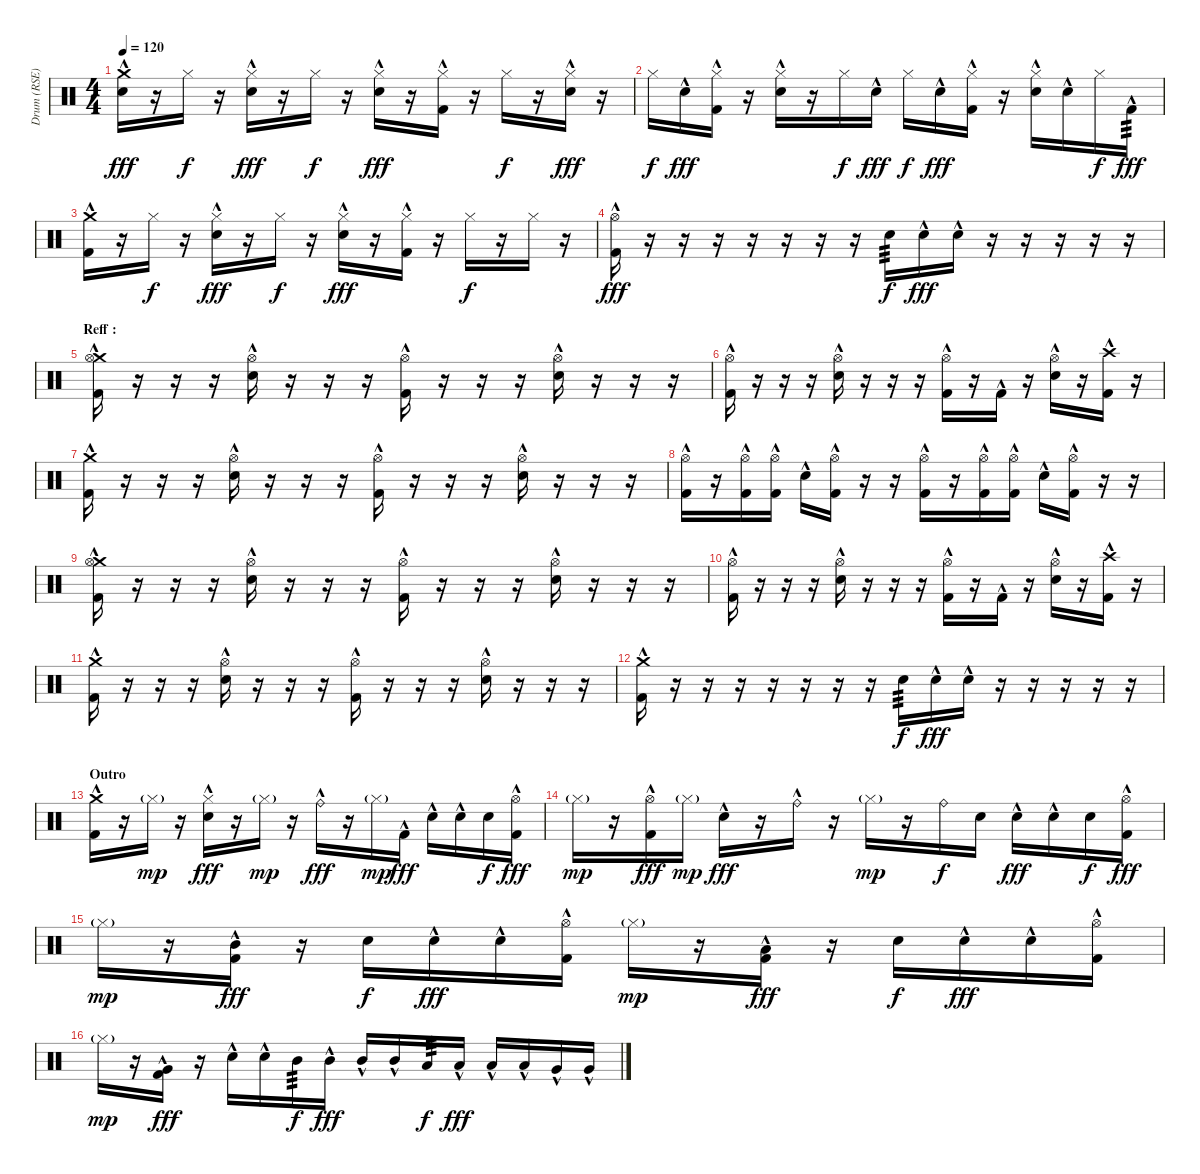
\track ("Drum (RSE)" "Drum (RSE)") {instrument percussion}
\staff {score}
\articulation defaults
\ts (4 4)
\tempo 120
\clef neutral
\ks c
("Crash medium (hit)" "Snare (hit) 2"{hac}).16{dy fff} r.16 "Hi-Hat (closed)".16{dy f} r.16 ("Hi-Hat (closed)" "Snare (hit) 2"{hac}).16{dy fff} r.16 "Hi-Hat (closed)".16{dy f} r.16 ("Hi-Hat (closed)" "Snare (hit) 2"{hac}).16{dy fff} r.16 ("Hi-Hat (closed)" "Kick (hit) 2"{hac}).16 r.16 "Hi-Hat (closed)".16{dy f} r.16 ("Hi-Hat (closed)" "Snare (hit) 2"{hac}).16{dy fff} r.16 |
"Hi-Hat (closed)".16{dy f} "Snare (hit) 2"{hac}.16{dy fff} ("Hi-Hat (closed)" "Kick (hit) 2"{hac}).16 r.16 ("Hi-Hat (closed)" "Snare (hit) 2"{hac}).16 r.16 "Hi-Hat (closed)".16{dy f} "Snare (hit) 2"{hac}.16{dy fff} "Hi-Hat (closed)".16{dy f} "Snare (hit) 2"{hac}.16{dy fff} ("Hi-Hat (closed)" "Kick (hit) 2"{hac}).16 r.16 ("Hi-Hat (closed)" "Snare (hit) 2"{hac}).16 "Snare (hit) 2"{hac}.16 "Hi-Hat (closed)".16{dy f} "Kick (hit) 2"{hac}.16{tp 3 dy fff} |
("Crash medium (hit)" "Kick (hit) 2"{hac}).16 r.16 "Hi-Hat (closed)".16{dy f} r.16 ("Hi-Hat (closed)" "Snare (hit) 2"{hac}).16{dy fff} r.16 "Hi-Hat (closed)".16{dy f} r.16 ("Hi-Hat (closed)" "Snare (hit) 2"{hac}).16{dy fff} r.16 ("Hi-Hat (closed)" "Kick (hit) 2"{hac}).16 r.16 "Hi-Hat (closed)".16{dy f} r.16 "Hi-Hat (closed)".16 r.16 |
("Hi-Hat (open)" "Kick (hit) 2"{hac}).16{dy fff} r.16 r.16 r.16 r.16 r.16 r.16 r.16 "Snare (hit) 2".16{tp 3 dy f} "Snare (hit) 2"{hac}.16{dy fff} "Snare (hit) 2"{hac}.16 r.16 r.16 r.16 r.16 r.16 |
\section ("" "Reff :")
("Crash medium (hit)" "Hi-Hat (open)" "Kick (hit) 2"{hac}).16 r.16 r.16 r.16 ("Hi-Hat (open)" "Snare (hit) 2"{hac}).16 r.16 r.16 r.16 ("Hi-Hat (open)" "Kick (hit) 2"{hac}).16 r.16 r.16 r.16 ("Hi-Hat (open)" "Snare (hit) 2"{hac}).16 r.16 r.16 r.16 |
("Hi-Hat (open)" "Kick (hit) 2"{hac}).16 r.16 r.16 r.16 ("Hi-Hat (open)" "Snare (hit) 2"{hac}).16 r.16 r.16 r.16 ("Hi-Hat (open)" "Kick (hit) 2"{hac}).16 r.16 "Kick (hit) 2"{hac}.16 r.16 ("Hi-Hat (open)" "Snare (hit) 2"{hac}).16 r.16 ("Crash high (hit)" "Kick (hit) 2"{hac}).16 r.16 |
("Crash medium (hit)" "Kick (hit) 2"{hac}).16 r.16 r.16 r.16 ("Hi-Hat (open)" "Snare (hit) 2"{hac}).16 r.16 r.16 r.16 ("Hi-Hat (open)" "Kick (hit) 2"{hac}).16 r.16 r.16 r.16 ("Hi-Hat (open)" "Snare (hit) 2"{hac}).16 r.16 r.16 r.16 |
("Hi-Hat (open)" "Kick (hit) 2"{hac}).16 r.16 ("Hi-Hat (open)" "Kick (hit) 2"{hac}).16 ("Hi-Hat (open)" "Kick (hit) 2"{hac}).16 "Snare (hit) 2"{hac}.16 ("Hi-Hat (open)" "Kick (hit) 2"{hac}).16 r.16 r.16 ("Hi-Hat (open)" "Kick (hit) 2"{hac}).16 r.16 ("Hi-Hat (open)" "Kick (hit) 2"{hac}).16 ("Hi-Hat (open)" "Kick (hit) 2"{hac}).16 "Snare (hit) 2"{hac}.16 ("Hi-Hat (open)" "Kick (hit) 2"{hac}).16 r.16 r.16 |
("Crash medium (hit)" "Hi-Hat (open)" "Kick (hit) 2"{hac}).16 r.16 r.16 r.16 ("Hi-Hat (open)" "Snare (hit) 2"{hac}).16 r.16 r.16 r.16 ("Hi-Hat (open)" "Kick (hit) 2"{hac}).16 r.16 r.16 r.16 ("Hi-Hat (open)" "Snare (hit) 2"{hac}).16 r.16 r.16 r.16 |
("Hi-Hat (open)" "Kick (hit) 2"{hac}).16 r.16 r.16 r.16 ("Hi-Hat (open)" "Snare (hit) 2"{hac}).16 r.16 r.16 r.16 ("Hi-Hat (open)" "Kick (hit) 2"{hac}).16 r.16 "Kick (hit) 2"{hac}.16 r.16 ("Hi-Hat (open)" "Snare (hit) 2"{hac}).16 r.16 ("Crash high (hit)" "Kick (hit) 2"{hac}).16 r.16 |
("Crash medium (hit)" "Kick (hit) 2"{hac}).16 r.16 r.16 r.16 ("Hi-Hat (open)" "Snare (hit) 2"{hac}).16 r.16 r.16 r.16 ("Hi-Hat (open)" "Kick (hit) 2"{hac}).16 r.16 r.16 r.16 ("Hi-Hat (open)" "Snare (hit) 2"{hac}).16 r.16 r.16 r.16 |
("Crash medium (hit)" "Kick (hit) 2"{hac}).16 r.16 r.16 r.16 r.16 r.16 r.16 r.16 "Snare (hit) 2".16{tp 3 dy f} "Snare (hit) 2"{hac}.16{dy fff} "Snare (hit) 2"{hac}.16 r.16 r.16 r.16 r.16 r.16 |
\section ("" "Outro")
("Crash medium (hit)" "Kick (hit) 2"{hac}).16 r.16 "Hi-Hat (closed)"{g}.16{dy mp} r.16 ("Hi-Hat (closed)" "Snare (hit) 2"{hac}).16{dy fff} r.16 "Hi-Hat (closed)"{g}.16{dy mp} r.16 "Ride (bell)"{hac}.16{dy fff} r.16 "Hi-Hat (closed)"{g}.16{dy mp} "Kick (hit) 2"{hac}.16{dy fff} "Snare (hit) 2"{hac}.16 "Snare (hit) 2"{hac}.16 "Snare (hit) 2".16{dy f} ("Hi-Hat (open)" "Kick (hit) 2"{hac}).16{dy fff} |
"Hi-Hat (closed)"{g}.16{dy mp} r.16 ("Hi-Hat (open)" "Kick (hit) 2"{hac}).16{dy fff} "Hi-Hat (closed)"{g}.16{dy mp} "Snare (hit) 2"{hac}.16{dy fff} r.16 "Ride (bell)"{hac}.16 r.16 "Hi-Hat (closed)"{g}.16{dy mp} r.16 "Ride (bell)".16{dy f} "Snare (hit) 2".16 "Snare (hit) 2"{hac}.16{dy fff} "Snare (hit) 2"{hac}.16 "Snare (hit) 2".16{dy f} ("Hi-Hat (open)" "Kick (hit) 2"{hac}).16{dy fff} |
"Hi-Hat (closed)"{g}.16{dy mp} r.16 ("Mid Tom (hit)"{hac} "Kick (hit) 2"{hac}).16{dy fff} r.16 "Snare (hit) 2".16{dy f} "Snare (hit) 2"{hac}.16{dy fff} "Snare (hit) 2"{hac}.16 ("Hi-Hat (open)" "Kick (hit) 2"{hac}).16 "Hi-Hat (closed)"{g}.16{dy mp} r.16 ("Low Tom (hit)"{hac} "Kick (hit) 2"{hac}).16{dy fff} r.16 "Snare (hit) 2".16{dy f} "Snare (hit) 2"{hac}.16{dy fff} "Snare (hit) 2"{hac}.16 ("Hi-Hat (open)" "Kick (hit) 2"{hac}).16 |
"Hi-Hat (closed)"{g}.16{dy mp} r.16 ("Very Low Tom (hit)"{hac} "Kick (hit) 2"{hac}).16{dy fff} r.16 "Snare (hit) 2"{hac}.16 "Snare (hit) 2"{hac}.16 "Mid Tom (hit)".16{tp 3 dy f} "Mid Tom (hit)"{hac}.16{dy fff} "Mid Tom (hit)"{hac}.16 "Mid Tom (hit)"{hac}.16 "Low Tom (hit)".16{tp 3 dy f} "Low Tom (hit)"{hac}.16{dy fff} "Low Tom (hit)"{hac}.16 "Low Tom (hit)"{hac}.16 "Very Low Tom (hit)"{hac}.16 "Very Low Tom (hit)"{hac}.16
